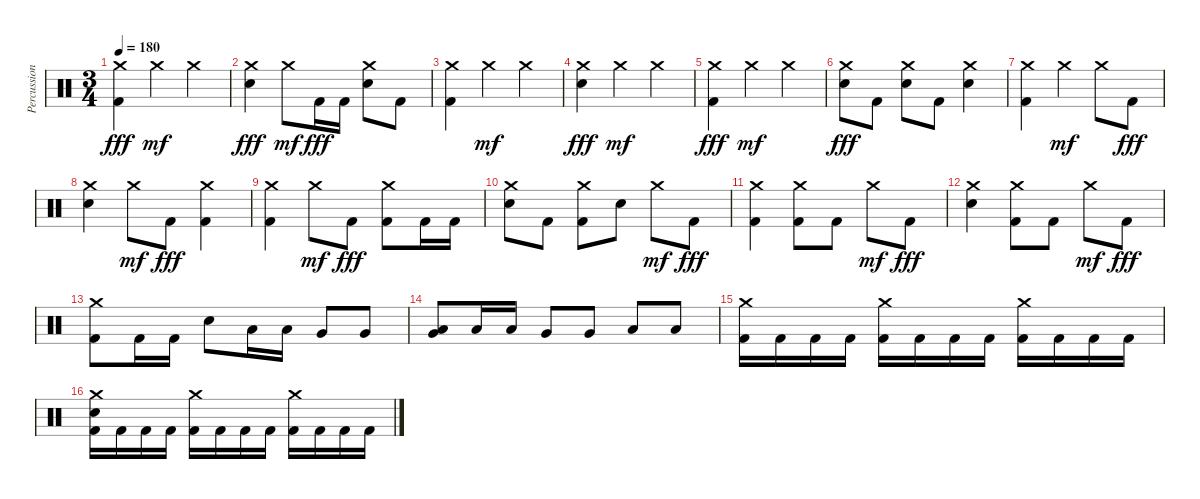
\track ("Percussion" "Percussion") {instrument percussion}
\staff {score}
\articulation defaults
\ts (3 4)
\tempo 180
\clef neutral
\ks c
("Crash medium (hit)" "Kick (hit) 2").4{dy fff} "Crash medium (hit)".4{dy mf} "Crash medium (hit)".4 |
("Crash medium (hit)" "Electric Snare (hit)").4{dy fff} "Crash medium (hit)".8{dy mf} "Kick (hit) 2".16{dy fff} "Kick (hit) 2".16 ("Crash medium (hit)" "Electric Snare (hit)").8 "Kick (hit) 2".8 |
("Crash medium (hit)" "Kick (hit) 2").4 "Crash medium (hit)".4{dy mf} "Crash medium (hit)".4 |
("Crash medium (hit)" "Electric Snare (hit)").4{dy fff} "Crash medium (hit)".4{dy mf} "Crash medium (hit)".4 |
("Crash medium (hit)" "Kick (hit) 2").4{dy fff} "Crash medium (hit)".4{dy mf} "Crash medium (hit)".4 |
("Crash medium (hit)" "Electric Snare (hit)").8{dy fff} "Kick (hit) 2".8 ("Crash medium (hit)" "Electric Snare (hit)").8 "Kick (hit) 2".8 ("Crash medium (hit)" "Electric Snare (hit)").4 |
("Crash medium (hit)" "Kick (hit) 2").4 "Crash medium (hit)".4{dy mf} "Crash medium (hit)".8 "Kick (hit) 2".8{dy fff} |
("Crash medium (hit)" "Electric Snare (hit)").4 "Crash medium (hit)".8{dy mf} "Kick (hit) 2".8{dy fff} ("Crash medium (hit)" "Kick (hit) 2").4 |
("Crash medium (hit)" "Kick (hit) 2").4 "Crash medium (hit)".8{dy mf} "Kick (hit) 2".8{dy fff} ("Crash medium (hit)" "Kick (hit) 2").8 "Kick (hit) 2".16 "Kick (hit) 2".16 |
("Crash medium (hit)" "Electric Snare (hit)").8 "Kick (hit) 2".8 ("Crash medium (hit)" "Kick (hit) 2").8 "Electric Snare (hit)".8 "Crash medium (hit)".8{dy mf} "Kick (hit) 2".8{dy fff} |
("Crash medium (hit)" "Kick (hit) 2").4 ("Crash medium (hit)" "Kick (hit) 2").8 "Kick (hit) 2".8 "Crash medium (hit)".8{dy mf} "Kick (hit) 2".8{dy fff} |
("Crash medium (hit)" "Electric Snare (hit)").4 ("Crash medium (hit)" "Kick (hit) 2").8 "Kick (hit) 2".8 "Crash medium (hit)".8{dy mf} "Kick (hit) 2".8{dy fff} |
("Crash medium (hit)" "Kick (hit) 2").8 "Kick (hit) 2".16 "Kick (hit) 2".16 "Electric Snare (hit)".8 "Low Tom (hit)".16 "Low Tom (hit)".16 "Very Low Tom (hit)".8 "Very Low Tom (hit)".8 |
("Very Low Tom (hit)" "Low Floor Tom (hit)").8 "Low Tom (hit)".16 "Low Tom (hit)".16 "Very Low Tom (hit)".8 "Very Low Tom (hit)".8 "Low Floor Tom (hit)".8 "Low Floor Tom (hit)".8 |
("Crash medium (hit)" "Kick (hit) 2").16 "Kick (hit) 2".16 "Kick (hit) 2".16 "Kick (hit) 2".16 ("Crash medium (hit)" "Kick (hit) 2").16 "Kick (hit) 2".16 "Kick (hit) 2".16 "Kick (hit) 2".16 ("Crash medium (hit)" "Kick (hit) 2").16 "Kick (hit) 2".16 "Kick (hit) 2".16 "Kick (hit) 2".16 |
("Crash medium (hit)" "Electric Snare (hit)" "Kick (hit) 2").16 "Kick (hit) 2".16 "Kick (hit) 2".16 "Kick (hit) 2".16 ("Crash medium (hit)" "Kick (hit) 2").16 "Kick (hit) 2".16 "Kick (hit) 2".16 "Kick (hit) 2".16 ("Crash medium (hit)" "Kick (hit) 2").16 "Kick (hit) 2".16 "Kick (hit) 2".16 "Kick (hit) 2".16
